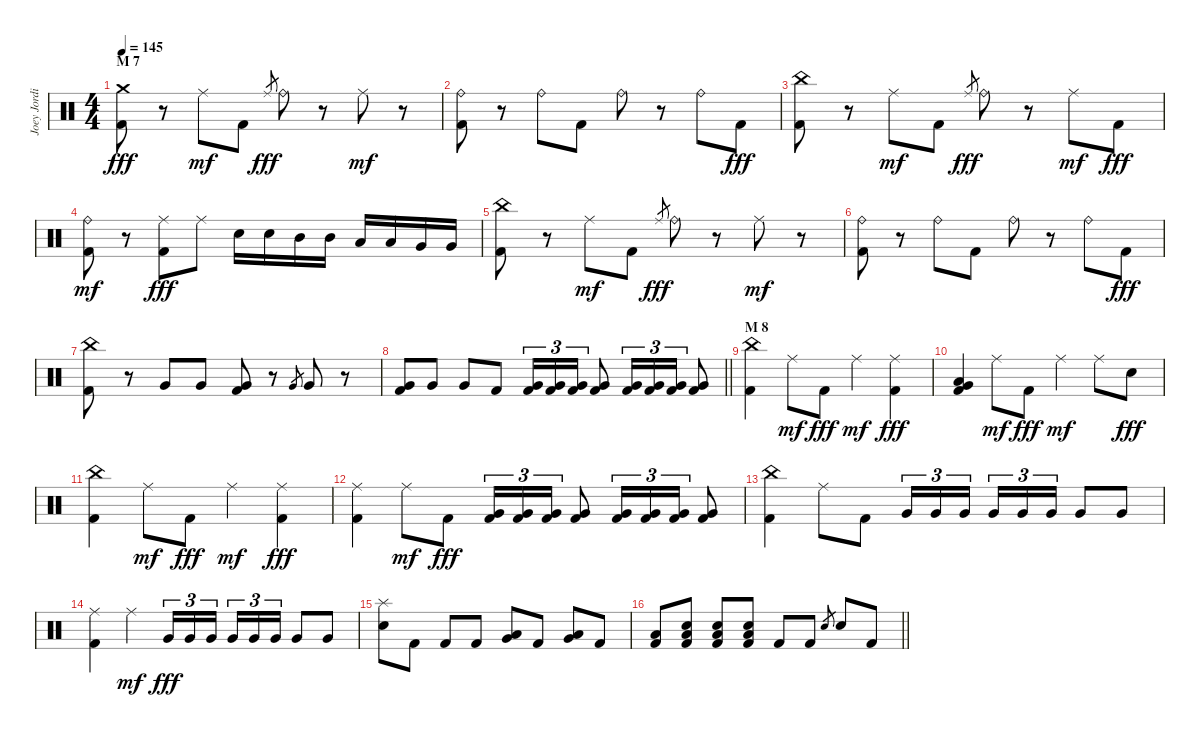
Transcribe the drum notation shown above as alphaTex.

\track ("Joey Jordison" "Joey Jordi") {instrument percussion}
\staff {score}
\articulation defaults
\ts (4 4)
\section ("" "M 7")
\tempo 145
\clef neutral
\ks c
("Crash medium (hit)" "Kick (hit) 2").8{dy fff} r.8 "Ride (middle)".8{dy mf} "Kick (hit) 2".8 "Ride (middle)".8{gr dy fff} "Ride (bell)".8 r.8 "Ride (middle)".8{dy mf} r.8 |
("Ride (bell)" "Kick (hit) 2").8 r.8 "Ride (bell)".8 "Kick (hit) 2".8 "Ride (bell)".8 r.8 "Ride (bell)".8 "Kick (hit) 2".8{dy fff} |
("China (hit)" "Kick (hit) 2").8 r.8 "Ride (middle)".8{dy mf} "Kick (hit) 2".8 "Ride (middle)".8{gr dy fff} "Ride (bell)".8 r.8 "Ride (middle)".8{dy mf} "Kick (hit) 2".8{dy fff} |
("Ride (bell)" "Kick (hit) 2").8{dy mf} r.8 ("Ride (middle)" "Kick (hit) 2").8{dy fff} "Ride (middle)".8 "Electric Snare (hit)".16 "Electric Snare (hit)".16 "Mid Tom (hit)".16 "Mid Tom (hit)".16 "Low Tom (hit)".16 "Low Tom (hit)".16 "Very Low Tom (hit)".16 "Very Low Tom (hit)".16 |
("China (hit)" "Kick (hit) 2").8 r.8 "Ride (middle)".8{dy mf} "Kick (hit) 2".8 "Ride (middle)".8{gr dy fff} "Ride (bell)".8 r.8 "Ride (middle)".8{dy mf} r.8 |
("Ride (bell)" "Kick (hit) 2").8 r.8 "Ride (bell)".8 "Kick (hit) 2".8 "Ride (bell)".8 r.8 "Ride (bell)".8 "Kick (hit) 2".8{dy fff} |
("China (hit)" "Kick (hit) 2").8 r.8 "Very Low Tom (hit)".8 "Very Low Tom (hit)".8 ("Very Low Tom (hit)" "Kick (hit) 2").8 r.8 "Very Low Tom (hit)".8{gr} "Very Low Tom (hit)".8 r.8 |
\barLineRight lightlight
("Very Low Tom (hit)" "Kick (hit) 2").8 "Very Low Tom (hit)".8 "Very Low Tom (hit)".8 "Kick (hit) 2".8 ("Very Low Tom (hit)" "Kick (hit) 2").16{tu (3 2)} ("Very Low Tom (hit)" "Kick (hit) 2").16{tu (3 2)} ("Very Low Tom (hit)" "Kick (hit) 2").16{tu (3 2)} ("Very Low Tom (hit)" "Kick (hit) 2").8 ("Very Low Tom (hit)" "Kick (hit) 2").16{tu (3 2)} ("Very Low Tom (hit)" "Kick (hit) 2").16{tu (3 2)} ("Very Low Tom (hit)" "Kick (hit) 2").16{tu (3 2)} ("Very Low Tom (hit)" "Kick (hit) 2").8 |
\section ("" "M 8")
("China (hit)" "Kick (hit) 2").4 "Ride (middle)".8{dy mf} "Kick (hit) 2".8{dy fff} "Ride (middle)".4{dy mf} ("Ride (middle)" "Kick (hit) 2").4{dy fff} |
("Very Low Tom (hit)" "Low Floor Tom (hit)" "Kick (hit) 2").4 "Ride (middle)".8{dy mf} "Kick (hit) 2".8{dy fff} "Ride (middle)".4{dy mf} "Ride (middle)".8 "Electric Snare (hit)".8{dy fff} |
("China (hit)" "Kick (hit) 2").4 "Ride (middle)".8{dy mf} "Kick (hit) 2".8{dy fff} "Ride (middle)".4{dy mf} ("Ride (middle)" "Kick (hit) 2").4{dy fff} |
("Ride (middle)" "Kick (hit) 2").4 "Ride (middle)".8{dy mf} "Kick (hit) 2".8{dy fff} ("Very Low Tom (hit)" "Kick (hit) 2").16{tu (3 2)} ("Very Low Tom (hit)" "Kick (hit) 2").16{tu (3 2)} ("Very Low Tom (hit)" "Kick (hit) 2").16{tu (3 2)} ("Very Low Tom (hit)" "Kick (hit) 2").8 ("Very Low Tom (hit)" "Kick (hit) 2").16{tu (3 2)} ("Very Low Tom (hit)" "Kick (hit) 2").16{tu (3 2)} ("Very Low Tom (hit)" "Kick (hit) 2").16{tu (3 2)} ("Very Low Tom (hit)" "Kick (hit) 2").8 |
("China (hit)" "Kick (hit) 2").4 "Ride (middle)".8 "Kick (hit) 2".8 "Very Low Tom (hit)".16{tu (3 2)} "Very Low Tom (hit)".16{tu (3 2)} "Very Low Tom (hit)".16{tu (3 2) beam splitsecondary} "Very Low Tom (hit)".16{tu (3 2)} "Very Low Tom (hit)".16{tu (3 2)} "Very Low Tom (hit)".16{tu (3 2)} "Very Low Tom (hit)".8 "Very Low Tom (hit)".8 |
("Ride (middle)" "Kick (hit) 2").4 "Ride (middle)".4{dy mf} "Very Low Tom (hit)".16{tu (3 2) dy fff} "Very Low Tom (hit)".16{tu (3 2)} "Very Low Tom (hit)".16{tu (3 2) beam splitsecondary} "Very Low Tom (hit)".16{tu (3 2)} "Very Low Tom (hit)".16{tu (3 2)} "Very Low Tom (hit)".16{tu (3 2)} "Very Low Tom (hit)".8 "Very Low Tom (hit)".8 |
("Splash (hit)" "Electric Snare (hit)").8 "Kick (hit) 2".8 "Kick (hit) 2".8 "Kick (hit) 2".8 ("Very Low Tom (hit)" "Low Floor Tom (hit)").8 "Kick (hit) 2".8 ("Very Low Tom (hit)" "Low Floor Tom (hit)").8 "Kick (hit) 2".8 |
\barLineRight lightlight
("Low Floor Tom (hit)" "Kick (hit) 2").8 ("Electric Snare (hit)" "Low Floor Tom (hit)" "Kick (hit) 2").8 ("Electric Snare (hit)" "Low Floor Tom (hit)" "Kick (hit) 2").8 ("Electric Snare (hit)" "Low Floor Tom (hit)" "Kick (hit) 2").8 "Kick (hit) 2".8 "Kick (hit) 2".8 "Electric Snare (hit)".8{gr} "Electric Snare (hit)".8 "Kick (hit) 2".8
